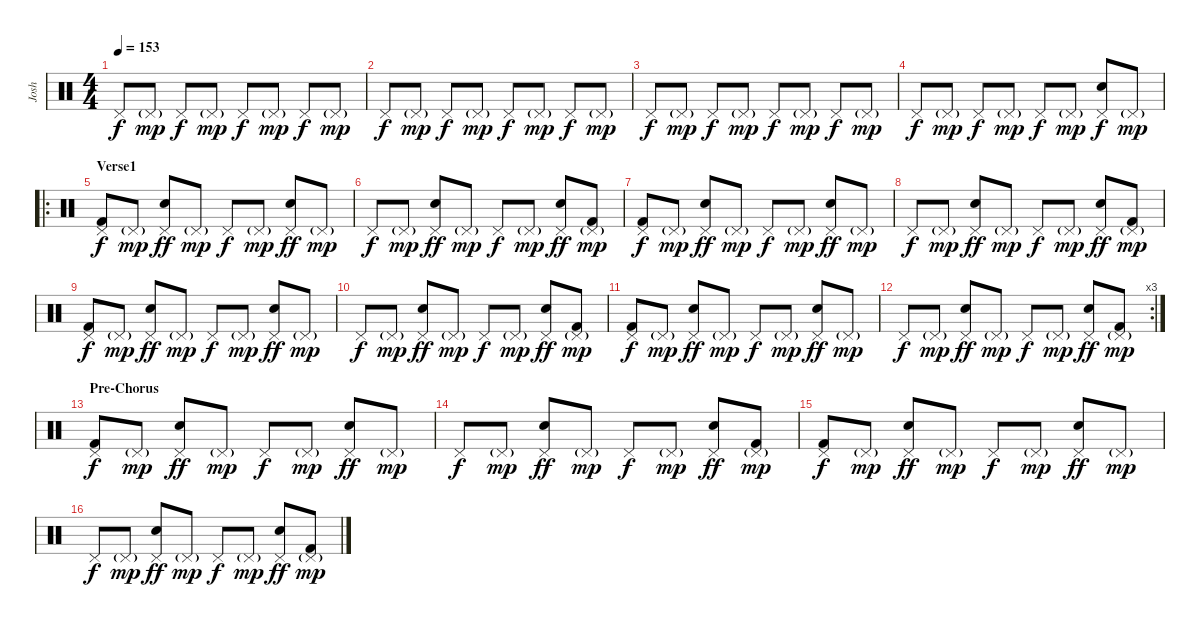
\track ("Josh" "Josh") {instrument percussion}
\staff {score}
\articulation defaults
\ts (4 4)
\tempo 153
\clef neutral
\ks c "Pedal Hi-Hat (hit)".8{dy f} "Pedal Hi-Hat (hit)"{g}.8{dy mp} "Pedal Hi-Hat (hit)".8{dy f} "Pedal Hi-Hat (hit)"{g}.8{dy mp} "Pedal Hi-Hat (hit)".8{dy f} "Pedal Hi-Hat (hit)"{g}.8{dy mp} "Pedal Hi-Hat (hit)".8{dy f} "Pedal Hi-Hat (hit)"{g}.8{dy mp}
|
"Pedal Hi-Hat (hit)".8{dy f} "Pedal Hi-Hat (hit)"{g}.8{dy mp} "Pedal Hi-Hat (hit)".8{dy f} "Pedal Hi-Hat (hit)"{g}.8{dy mp} "Pedal Hi-Hat (hit)".8{dy f} "Pedal Hi-Hat (hit)"{g}.8{dy mp} "Pedal Hi-Hat (hit)".8{dy f} "Pedal Hi-Hat (hit)"{g}.8{dy mp} |
"Pedal Hi-Hat (hit)".8{dy f} "Pedal Hi-Hat (hit)"{g}.8{dy mp} "Pedal Hi-Hat (hit)".8{dy f} "Pedal Hi-Hat (hit)"{g}.8{dy mp} "Pedal Hi-Hat (hit)".8{dy f} "Pedal Hi-Hat (hit)"{g}.8{dy mp} "Pedal Hi-Hat (hit)".8{dy f} "Pedal Hi-Hat (hit)"{g}.8{dy mp} |
"Pedal Hi-Hat (hit)".8{dy f} "Pedal Hi-Hat (hit)"{g}.8{dy mp} "Pedal Hi-Hat (hit)".8{dy f} "Pedal Hi-Hat (hit)"{g}.8{dy mp} "Pedal Hi-Hat (hit)".8{dy f} "Pedal Hi-Hat (hit)"{g}.8{dy mp} ("Pedal Hi-Hat (hit)" "Electric Snare (hit)").8{dy f} "Pedal Hi-Hat (hit)"{g}.8{dy mp} |
\ro
\section ("" "Verse1")
("Pedal Hi-Hat (hit)" "Kick (hit) 2").8{dy f} "Pedal Hi-Hat (hit)"{g}.8{dy mp} ("Pedal Hi-Hat (hit)" "Electric Snare (hit)").8{dy ff} "Pedal Hi-Hat (hit)"{g}.8{dy mp} "Pedal Hi-Hat (hit)".8{dy f} "Pedal Hi-Hat (hit)"{g}.8{dy mp} ("Pedal Hi-Hat (hit)" "Electric Snare (hit)").8{dy ff} "Pedal Hi-Hat (hit)"{g}.8{dy mp} |
"Pedal Hi-Hat (hit)".8{dy f} "Pedal Hi-Hat (hit)"{g}.8{dy mp} ("Pedal Hi-Hat (hit)" "Electric Snare (hit)").8{dy ff} "Pedal Hi-Hat (hit)"{g}.8{dy mp} "Pedal Hi-Hat (hit)".8{dy f} "Pedal Hi-Hat (hit)"{g}.8{dy mp} ("Pedal Hi-Hat (hit)" "Electric Snare (hit)").8{dy ff} ("Pedal Hi-Hat (hit)"{g} "Kick (hit) 2").8{dy mp} |
("Pedal Hi-Hat (hit)" "Kick (hit) 2").8{dy f} "Pedal Hi-Hat (hit)"{g}.8{dy mp} ("Pedal Hi-Hat (hit)" "Electric Snare (hit)").8{dy ff} "Pedal Hi-Hat (hit)"{g}.8{dy mp} "Pedal Hi-Hat (hit)".8{dy f} "Pedal Hi-Hat (hit)"{g}.8{dy mp} ("Pedal Hi-Hat (hit)" "Electric Snare (hit)").8{dy ff} "Pedal Hi-Hat (hit)"{g}.8{dy mp} |
"Pedal Hi-Hat (hit)".8{dy f} "Pedal Hi-Hat (hit)"{g}.8{dy mp} ("Pedal Hi-Hat (hit)" "Electric Snare (hit)").8{dy ff} "Pedal Hi-Hat (hit)"{g}.8{dy mp} "Pedal Hi-Hat (hit)".8{dy f} "Pedal Hi-Hat (hit)"{g}.8{dy mp} ("Pedal Hi-Hat (hit)" "Electric Snare (hit)").8{dy ff} ("Pedal Hi-Hat (hit)"{g} "Kick (hit) 2").8{dy mp} |
("Pedal Hi-Hat (hit)" "Kick (hit) 2").8{dy f} "Pedal Hi-Hat (hit)"{g}.8{dy mp} ("Pedal Hi-Hat (hit)" "Electric Snare (hit)").8{dy ff} "Pedal Hi-Hat (hit)"{g}.8{dy mp} "Pedal Hi-Hat (hit)".8{dy f} "Pedal Hi-Hat (hit)"{g}.8{dy mp} ("Pedal Hi-Hat (hit)" "Electric Snare (hit)").8{dy ff} "Pedal Hi-Hat (hit)"{g}.8{dy mp} |
"Pedal Hi-Hat (hit)".8{dy f} "Pedal Hi-Hat (hit)"{g}.8{dy mp} ("Pedal Hi-Hat (hit)" "Electric Snare (hit)").8{dy ff} "Pedal Hi-Hat (hit)"{g}.8{dy mp} "Pedal Hi-Hat (hit)".8{dy f} "Pedal Hi-Hat (hit)"{g}.8{dy mp} ("Pedal Hi-Hat (hit)" "Electric Snare (hit)").8{dy ff} ("Pedal Hi-Hat (hit)"{g} "Kick (hit) 2").8{dy mp} |
("Pedal Hi-Hat (hit)" "Kick (hit) 2").8{dy f} "Pedal Hi-Hat (hit)"{g}.8{dy mp} ("Pedal Hi-Hat (hit)" "Electric Snare (hit)").8{dy ff} "Pedal Hi-Hat (hit)"{g}.8{dy mp} "Pedal Hi-Hat (hit)".8{dy f} "Pedal Hi-Hat (hit)"{g}.8{dy mp} ("Pedal Hi-Hat (hit)" "Electric Snare (hit)").8{dy ff} "Pedal Hi-Hat (hit)"{g}.8{dy mp} |
\rc 3 "Pedal Hi-Hat (hit)".8{dy f} "Pedal Hi-Hat (hit)"{g}.8{dy mp}
("Pedal Hi-Hat (hit)" "Electric Snare (hit)").8{dy ff} "Pedal Hi-Hat (hit)"{g}.8{dy mp} "Pedal Hi-Hat (hit)".8{dy f} "Pedal Hi-Hat (hit)"{g}.8{dy mp} ("Pedal Hi-Hat (hit)" "Electric Snare (hit)").8{dy ff} ("Pedal Hi-Hat (hit)"{g} "Kick (hit) 2").8{dy mp} |
\section ("" "Pre-Chorus")
("Pedal Hi-Hat (hit)" "Kick (hit) 2").8{dy f} "Pedal Hi-Hat (hit)"{g}.8{dy mp} ("Pedal Hi-Hat (hit)" "Electric Snare (hit)").8{dy ff} "Pedal Hi-Hat (hit)"{g}.8{dy mp} "Pedal Hi-Hat (hit)".8{dy f} "Pedal Hi-Hat (hit)"{g}.8{dy mp} ("Pedal Hi-Hat (hit)" "Electric Snare (hit)").8{dy ff} "Pedal Hi-Hat (hit)"{g}.8{dy mp} |
"Pedal Hi-Hat (hit)".8{dy f} "Pedal Hi-Hat (hit)"{g}.8{dy mp} ("Pedal Hi-Hat (hit)" "Electric Snare (hit)").8{dy ff} "Pedal Hi-Hat (hit)"{g}.8{dy mp} "Pedal Hi-Hat (hit)".8{dy f} "Pedal Hi-Hat (hit)"{g}.8{dy mp} ("Pedal Hi-Hat (hit)" "Electric Snare (hit)").8{dy ff} ("Pedal Hi-Hat (hit)"{g} "Kick (hit) 2").8{dy mp} |
("Pedal Hi-Hat (hit)" "Kick (hit) 2").8{dy f} "Pedal Hi-Hat (hit)"{g}.8{dy mp} ("Pedal Hi-Hat (hit)" "Electric Snare (hit)").8{dy ff} "Pedal Hi-Hat (hit)"{g}.8{dy mp} "Pedal Hi-Hat (hit)".8{dy f} "Pedal Hi-Hat (hit)"{g}.8{dy mp} ("Pedal Hi-Hat (hit)" "Electric Snare (hit)").8{dy ff} "Pedal Hi-Hat (hit)"{g}.8{dy mp} |
"Pedal Hi-Hat (hit)".8{dy f} "Pedal Hi-Hat (hit)"{g}.8{dy mp} ("Pedal Hi-Hat (hit)" "Electric Snare (hit)").8{dy ff} "Pedal Hi-Hat (hit)"{g}.8{dy mp} "Pedal Hi-Hat (hit)".8{dy f} "Pedal Hi-Hat (hit)"{g}.8{dy mp} ("Pedal Hi-Hat (hit)" "Electric Snare (hit)").8{dy ff} ("Pedal Hi-Hat (hit)"{g} "Kick (hit) 2").8{dy mp}
